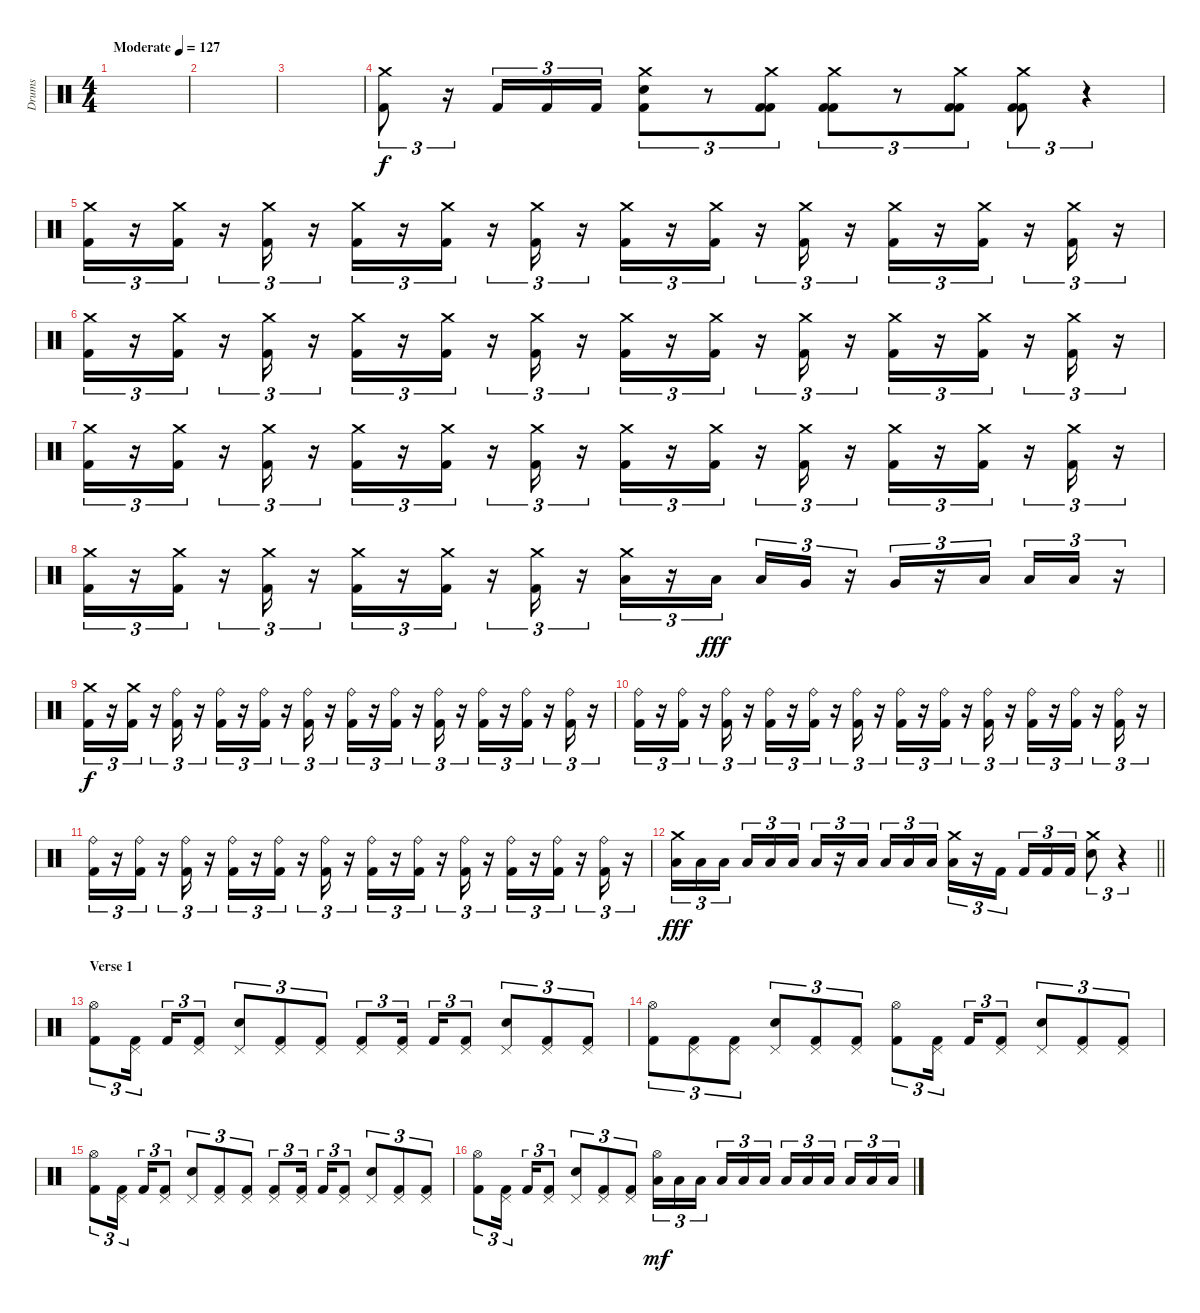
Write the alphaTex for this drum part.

\track ("Drums" "Drums") {instrument percussion}
\staff {score}
\articulation defaults
\ts (4 4)
\tempo (127 "Moderate")
\clef neutral
\ks c
|
|
|
("Crash medium (hit)" "Kick (hit) 2").8{tu (3 2)} r.16{tu (3 2)} "Kick (hit) 2".16{tu (3 2)} "Kick (hit) 2".16{tu (3 2)} "Kick (hit) 2".16{tu (3 2)} ("Crash medium (hit)" "Snare (hit) 2" "Kick (hit) 2").8{tu (3 2)} r.8{tu (3 2)} ("Crash medium (hit)" "Kick (hit) 2" "Kick (hit) 2").8{tu (3 2)} ("Crash medium (hit)" "Kick (hit) 2" "Kick (hit) 2").8{tu (3 2)} r.8{tu (3 2)} ("Crash medium (hit)" "Kick (hit) 2" "Kick (hit) 2").8{tu (3 2)} ("Crash medium (hit)" "Kick (hit) 2" "Kick (hit) 2").8{tu (3 2)} r.4{tu (3 2)} |
("Crash medium (hit)" "Kick (hit) 2").16{tu (3 2) dy f} r.16{tu (3 2)} ("Crash medium (hit)" "Kick (hit) 2").16{tu (3 2)} r.16{tu (3 2)} ("Crash medium (hit)" "Kick (hit) 2").16{tu (3 2)} r.16{tu (3 2)} ("Crash medium (hit)" "Kick (hit) 2").16{tu (3 2)} r.16{tu (3 2)} ("Crash medium (hit)" "Kick (hit) 2").16{tu (3 2)} r.16{tu (3 2)} ("Crash medium (hit)" "Kick (hit) 2").16{tu (3 2)} r.16{tu (3 2)} ("Crash medium (hit)" "Kick (hit) 2").16{tu (3 2)} r.16{tu (3 2)} ("Crash medium (hit)" "Kick (hit) 2").16{tu (3 2)} r.16{tu (3 2)} ("Crash medium (hit)" "Kick (hit) 2").16{tu (3 2)} r.16{tu (3 2)} ("Crash medium (hit)" "Kick (hit) 2").16{tu (3 2)} r.16{tu (3 2)} ("Crash medium (hit)" "Kick (hit) 2").16{tu (3 2)} r.16{tu (3 2)} ("Crash medium (hit)" "Kick (hit) 2").16{tu (3 2)} r.16{tu (3 2)} |
("Crash medium (hit)" "Kick (hit) 2").16{tu (3 2)} r.16{tu (3 2)} ("Crash medium (hit)" "Kick (hit) 2").16{tu (3 2)} r.16{tu (3 2)} ("Crash medium (hit)" "Kick (hit) 2").16{tu (3 2)} r.16{tu (3 2)} ("Crash medium (hit)" "Kick (hit) 2").16{tu (3 2)} r.16{tu (3 2)} ("Crash medium (hit)" "Kick (hit) 2").16{tu (3 2)} r.16{tu (3 2)} ("Crash medium (hit)" "Kick (hit) 2").16{tu (3 2)} r.16{tu (3 2)} ("Crash medium (hit)" "Kick (hit) 2").16{tu (3 2)} r.16{tu (3 2)} ("Crash medium (hit)" "Kick (hit) 2").16{tu (3 2)} r.16{tu (3 2)} ("Crash medium (hit)" "Kick (hit) 2").16{tu (3 2)} r.16{tu (3 2)} ("Crash medium (hit)" "Kick (hit) 2").16{tu (3 2)} r.16{tu (3 2)} ("Crash medium (hit)" "Kick (hit) 2").16{tu (3 2)} r.16{tu (3 2)} ("Crash medium (hit)" "Kick (hit) 2").16{tu (3 2)} r.16{tu (3 2)} |
("Crash medium (hit)" "Kick (hit) 2").16{tu (3 2)} r.16{tu (3 2)} ("Crash medium (hit)" "Kick (hit) 2").16{tu (3 2)} r.16{tu (3 2)} ("Crash medium (hit)" "Kick (hit) 2").16{tu (3 2)} r.16{tu (3 2)} ("Crash medium (hit)" "Kick (hit) 2").16{tu (3 2)} r.16{tu (3 2)} ("Crash medium (hit)" "Kick (hit) 2").16{tu (3 2)} r.16{tu (3 2)} ("Crash medium (hit)" "Kick (hit) 2").16{tu (3 2)} r.16{tu (3 2)} ("Crash medium (hit)" "Kick (hit) 2").16{tu (3 2)} r.16{tu (3 2)} ("Crash medium (hit)" "Kick (hit) 2").16{tu (3 2)} r.16{tu (3 2)} ("Crash medium (hit)" "Kick (hit) 2").16{tu (3 2)} r.16{tu (3 2)} ("Crash medium (hit)" "Kick (hit) 2").16{tu (3 2)} r.16{tu (3 2)} ("Crash medium (hit)" "Kick (hit) 2").16{tu (3 2)} r.16{tu (3 2)} ("Crash medium (hit)" "Kick (hit) 2").16{tu (3 2)} r.16{tu (3 2)} |
("Crash medium (hit)" "Kick (hit) 2").16{tu (3 2)} r.16{tu (3 2)} ("Crash medium (hit)" "Kick (hit) 2").16{tu (3 2)} r.16{tu (3 2)} ("Crash medium (hit)" "Kick (hit) 2").16{tu (3 2)} r.16{tu (3 2)} ("Crash medium (hit)" "Kick (hit) 2").16{tu (3 2)} r.16{tu (3 2)} ("Crash medium (hit)" "Kick (hit) 2").16{tu (3 2)} r.16{tu (3 2)} ("Crash medium (hit)" "Kick (hit) 2").16{tu (3 2)} r.16{tu (3 2)} ("Crash medium (hit)" "Low Tom (hit)").16{tu (3 2)} r.16{tu (3 2)} "Low Tom (hit)".16{tu (3 2) dy fff beam splitsecondary} "Low Tom (hit)".16{tu (3 2)} "Very Low Tom (hit)".16{tu (3 2)} r.16{tu (3 2)} "Very Low Tom (hit)".16{tu (3 2)} r.16{tu (3 2)} "Low Floor Tom (hit)".16{tu (3 2) beam splitsecondary} "Low Floor Tom (hit)".16{tu (3 2)} "Low Floor Tom (hit)".16{tu (3 2)} r.16{tu (3 2)} |
("Crash medium (hit)" "Kick (hit) 2").16{tu (3 2) dy f} r.16{tu (3 2)} ("Crash medium (hit)" "Kick (hit) 2").16{tu (3 2)} r.16{tu (3 2)} ("Ride (bell)" "Kick (hit) 2").16{tu (3 2)} r.16{tu (3 2)} ("Ride (bell)" "Kick (hit) 2").16{tu (3 2)} r.16{tu (3 2)} ("Ride (bell)" "Kick (hit) 2").16{tu (3 2)} r.16{tu (3 2)} ("Ride (bell)" "Kick (hit) 2").16{tu (3 2)} r.16{tu (3 2)} ("Ride (bell)" "Kick (hit) 2").16{tu (3 2)} r.16{tu (3 2)} ("Ride (bell)" "Kick (hit) 2").16{tu (3 2)} r.16{tu (3 2)} ("Ride (bell)" "Kick (hit) 2").16{tu (3 2)} r.16{tu (3 2)} ("Ride (bell)" "Kick (hit) 2").16{tu (3 2)} r.16{tu (3 2)} ("Ride (bell)" "Kick (hit) 2").16{tu (3 2)} r.16{tu (3 2)} ("Ride (bell)" "Kick (hit) 2").16{tu (3 2)} r.16{tu (3 2)} |
("Ride (bell)" "Kick (hit) 2").16{tu (3 2)} r.16{tu (3 2)} ("Ride (bell)" "Kick (hit) 2").16{tu (3 2)} r.16{tu (3 2)} ("Ride (bell)" "Kick (hit) 2").16{tu (3 2)} r.16{tu (3 2)} ("Ride (bell)" "Kick (hit) 2").16{tu (3 2)} r.16{tu (3 2)} ("Ride (bell)" "Kick (hit) 2").16{tu (3 2)} r.16{tu (3 2)} ("Ride (bell)" "Kick (hit) 2").16{tu (3 2)} r.16{tu (3 2)} ("Ride (bell)" "Kick (hit) 2").16{tu (3 2)} r.16{tu (3 2)} ("Ride (bell)" "Kick (hit) 2").16{tu (3 2)} r.16{tu (3 2)} ("Ride (bell)" "Kick (hit) 2").16{tu (3 2)} r.16{tu (3 2)} ("Ride (bell)" "Kick (hit) 2").16{tu (3 2)} r.16{tu (3 2)} ("Ride (bell)" "Kick (hit) 2").16{tu (3 2)} r.16{tu (3 2)} ("Ride (bell)" "Kick (hit) 2").16{tu (3 2)} r.16{tu (3 2)} |
("Ride (bell)" "Kick (hit) 2").16{tu (3 2)} r.16{tu (3 2)} ("Ride (bell)" "Kick (hit) 2").16{tu (3 2)} r.16{tu (3 2)} ("Ride (bell)" "Kick (hit) 2").16{tu (3 2)} r.16{tu (3 2)} ("Ride (bell)" "Kick (hit) 2").16{tu (3 2)} r.16{tu (3 2)} ("Ride (bell)" "Kick (hit) 2").16{tu (3 2)} r.16{tu (3 2)} ("Ride (bell)" "Kick (hit) 2").16{tu (3 2)} r.16{tu (3 2)} ("Ride (bell)" "Kick (hit) 2").16{tu (3 2)} r.16{tu (3 2)} ("Ride (bell)" "Kick (hit) 2").16{tu (3 2)} r.16{tu (3 2)} ("Ride (bell)" "Kick (hit) 2").16{tu (3 2)} r.16{tu (3 2)} ("Ride (bell)" "Kick (hit) 2").16{tu (3 2)} r.16{tu (3 2)} ("Ride (bell)" "Kick (hit) 2").16{tu (3 2)} r.16{tu (3 2)} ("Ride (bell)" "Kick (hit) 2").16{tu (3 2)} r.16{tu (3 2)} |
\barLineRight lightlight
("Crash medium (hit)" "Low Tom (hit)").16{tu (3 2) dy fff} "Low Tom (hit)".16{tu (3 2)} "Low Tom (hit)".16{tu (3 2) beam splitsecondary} "Low Tom (hit)".16{tu (3 2)} "Low Tom (hit)".16{tu (3 2)} "Low Tom (hit)".16{tu (3 2)} "Low Tom (hit)".16{tu (3 2)} r.16{tu (3 2)} "Low Floor Tom (hit)".16{tu (3 2) beam splitsecondary} "Low Floor Tom (hit)".16{tu (3 2)} "Low Floor Tom (hit)".16{tu (3 2)} "Low Floor Tom (hit)".16{tu (3 2)} ("Crash medium (hit)" "Low Floor Tom (hit)").16{tu (3 2)} r.16{tu (3 2)} "Kick (hit) 2".16{tu (3 2) beam splitsecondary} "Kick (hit) 2".16{tu (3 2)} "Kick (hit) 2".16{tu (3 2)} "Kick (hit) 2".16{tu (3 2)} ("Crash medium (hit)" "Snare (hit) 2").8{tu (3 2)} r.4{tu (3 2)} |
\section ("" "Verse 1")
("Hi-Hat (open)" "Kick (hit) 2").8{tu (3 2)} ("Pedal Hi-Hat (hit)" "Kick (hit) 2").16{tu (3 2) beam splitsecondary} "Kick (hit) 2".16{tu (3 2)} ("Pedal Hi-Hat (hit)" "Kick (hit) 2").8{tu (3 2)} ("Pedal Hi-Hat (hit)" "Snare (hit) 2").8{tu (3 2)} ("Pedal Hi-Hat (hit)" "Kick (hit) 2").8{tu (3 2)} ("Pedal Hi-Hat (hit)" "Kick (hit) 2").8{tu (3 2)} ("Pedal Hi-Hat (hit)" "Kick (hit) 2").8{tu (3 2)} ("Pedal Hi-Hat (hit)" "Kick (hit) 2").16{tu (3 2) beam splitsecondary} "Kick (hit) 2".16{tu (3 2)} ("Pedal Hi-Hat (hit)" "Kick (hit) 2").8{tu (3 2)} ("Pedal Hi-Hat (hit)" "Snare (hit) 2").8{tu (3 2)} ("Pedal Hi-Hat (hit)" "Kick (hit) 2").8{tu (3 2)} ("Pedal Hi-Hat (hit)" "Kick (hit) 2").8{tu (3 2)} |
("Hi-Hat (open)" "Kick (hit) 2").8{tu (3 2)} ("Pedal Hi-Hat (hit)" "Kick (hit) 2").8{tu (3 2)} ("Pedal Hi-Hat (hit)" "Kick (hit) 2").8{tu (3 2)} ("Pedal Hi-Hat (hit)" "Snare (hit) 2").8{tu (3 2)} ("Pedal Hi-Hat (hit)" "Kick (hit) 2").8{tu (3 2)} ("Pedal Hi-Hat (hit)" "Kick (hit) 2").8{tu (3 2)} ("Hi-Hat (open)" "Kick (hit) 2").8{tu (3 2)} ("Pedal Hi-Hat (hit)" "Kick (hit) 2").16{tu (3 2) beam splitsecondary} "Kick (hit) 2".16{tu (3 2)} ("Pedal Hi-Hat (hit)" "Kick (hit) 2").8{tu (3 2)} ("Pedal Hi-Hat (hit)" "Snare (hit) 2").8{tu (3 2)} ("Pedal Hi-Hat (hit)" "Kick (hit) 2").8{tu (3 2)} ("Pedal Hi-Hat (hit)" "Kick (hit) 2").8{tu (3 2)} |
("Hi-Hat (open)" "Kick (hit) 2").8{tu (3 2)} ("Pedal Hi-Hat (hit)" "Kick (hit) 2").16{tu (3 2) beam splitsecondary} "Kick (hit) 2".16{tu (3 2)} ("Pedal Hi-Hat (hit)" "Kick (hit) 2").8{tu (3 2)} ("Pedal Hi-Hat (hit)" "Snare (hit) 2").8{tu (3 2)} ("Pedal Hi-Hat (hit)" "Kick (hit) 2").8{tu (3 2)} ("Pedal Hi-Hat (hit)" "Kick (hit) 2").8{tu (3 2)} ("Pedal Hi-Hat (hit)" "Kick (hit) 2").8{tu (3 2)} ("Pedal Hi-Hat (hit)" "Kick (hit) 2").16{tu (3 2) beam splitsecondary} "Kick (hit) 2".16{tu (3 2)} ("Pedal Hi-Hat (hit)" "Kick (hit) 2").8{tu (3 2)} ("Pedal Hi-Hat (hit)" "Snare (hit) 2").8{tu (3 2)} ("Pedal Hi-Hat (hit)" "Kick (hit) 2").8{tu (3 2)} ("Pedal Hi-Hat (hit)" "Kick (hit) 2").8{tu (3 2)} |
("Hi-Hat (open)" "Kick (hit) 2").8{tu (3 2)} ("Pedal Hi-Hat (hit)" "Kick (hit) 2").16{tu (3 2) beam splitsecondary} "Kick (hit) 2".16{tu (3 2)} ("Pedal Hi-Hat (hit)" "Kick (hit) 2").8{tu (3 2)} ("Pedal Hi-Hat (hit)" "Snare (hit) 2").8{tu (3 2)} ("Pedal Hi-Hat (hit)" "Kick (hit) 2").8{tu (3 2)} ("Pedal Hi-Hat (hit)" "Kick (hit) 2").8{tu (3 2)} ("Hi-Hat (open)" "Low Tom (hit)").16{tu (3 2) dy mf} "Low Tom (hit)".16{tu (3 2)} "Low Tom (hit)".16{tu (3 2) beam splitsecondary} "Low Tom (hit)".16{tu (3 2)} "Low Tom (hit)".16{tu (3 2)} "Low Tom (hit)".16{tu (3 2)} "Low Floor Tom (hit)".16{tu (3 2)} "Low Floor Tom (hit)".16{tu (3 2)} "Low Floor Tom (hit)".16{tu (3 2) beam splitsecondary} "Low Floor Tom (hit)".16{tu (3 2)} "Low Floor Tom (hit)".16{tu (3 2)} "Low Floor Tom (hit)".16{tu (3 2)}
